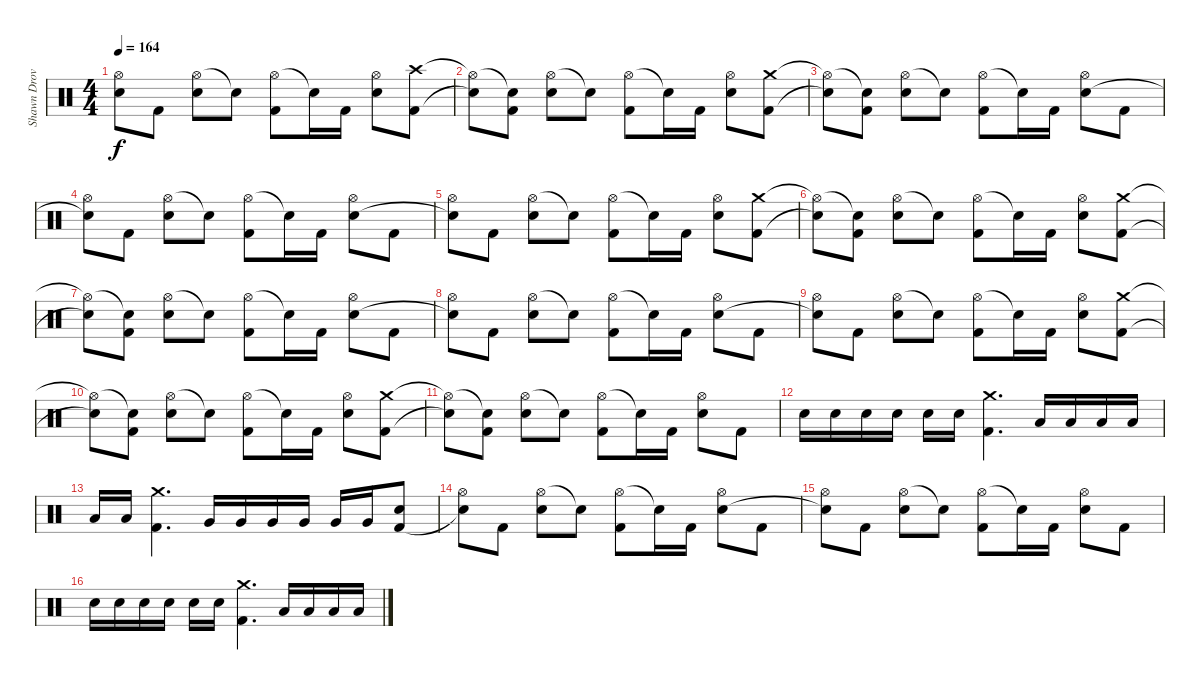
\track ("Shawn Drover" "Shawn Drov") {instrument percussion}
\staff {score}
\articulation defaults
\ts (4 4)
\tempo 164
\clef neutral
\ks c
("Hi-Hat (open)" "Snare (hit)"{t}).8{dy f} "Kick (hit) 2".8 ("Hi-Hat (open)" "Snare (hit) 2").8 "Snare (hit)"{t}.8 ("Hi-Hat (open)" "Kick (hit) 2").8 "Snare (hit)"{t}.16 "Kick (hit) 2".16 ("Hi-Hat (open)" "Snare (hit) 2").8 ("Crash high (hit)" "Kick (hit) 2").8 |
("Hi-Hat (open)"{t} "Snare (hit)"{t}).8 ("Snare (hit)"{t} "Kick (hit) 2").8 ("Hi-Hat (open)" "Snare (hit) 2").8 "Snare (hit)"{t}.8 ("Hi-Hat (open)" "Kick (hit) 2").8 "Snare (hit)"{t}.16 "Kick (hit) 2".16 ("Hi-Hat (open)" "Snare (hit) 2").8 ("Crash medium (hit)" "Kick (hit) 2").8 |
("Hi-Hat (open)"{t} "Snare (hit)"{t}).8 ("Snare (hit)"{t} "Kick (hit) 2").8 ("Hi-Hat (open)" "Snare (hit) 2").8 "Snare (hit)"{t}.8 ("Hi-Hat (open)" "Kick (hit) 2").8 "Snare (hit)"{t}.16 "Kick (hit) 2".16 ("Hi-Hat (open)" "Snare (hit) 2").8 "Kick (hit) 2".8 |
("Hi-Hat (open)" "Snare (hit)"{t}).8 "Kick (hit) 2".8 ("Hi-Hat (open)" "Snare (hit) 2").8 "Snare (hit)"{t}.8 ("Hi-Hat (open)" "Kick (hit) 2").8 "Snare (hit)"{t}.16 "Kick (hit) 2".16 ("Hi-Hat (open)" "Snare (hit) 2").8 "Kick (hit) 2".8 |
("Hi-Hat (open)" "Snare (hit)"{t}).8 "Kick (hit) 2".8 ("Hi-Hat (open)" "Snare (hit) 2").8 "Snare (hit)"{t}.8 ("Hi-Hat (open)" "Kick (hit) 2").8 "Snare (hit)"{t}.16 "Kick (hit) 2".16 ("Hi-Hat (open)" "Snare (hit) 2").8 ("Crash medium (hit)" "Kick (hit) 2").8 |
("Hi-Hat (open)"{t} "Snare (hit)"{t}).8 ("Snare (hit)"{t} "Kick (hit) 2").8 ("Hi-Hat (open)" "Snare (hit) 2").8 "Snare (hit)"{t}.8 ("Hi-Hat (open)" "Kick (hit) 2").8 "Snare (hit)"{t}.16 "Kick (hit) 2".16 ("Hi-Hat (open)" "Snare (hit) 2").8 ("Crash medium (hit)" "Kick (hit) 2").8 |
("Hi-Hat (open)"{t} "Snare (hit)"{t}).8 ("Snare (hit)"{t} "Kick (hit) 2").8 ("Hi-Hat (open)" "Snare (hit) 2").8 "Snare (hit)"{t}.8 ("Hi-Hat (open)" "Kick (hit) 2").8 "Snare (hit)"{t}.16 "Kick (hit) 2".16 ("Hi-Hat (open)" "Snare (hit) 2").8 "Kick (hit) 2".8 |
("Hi-Hat (open)" "Snare (hit)"{t}).8 "Kick (hit) 2".8 ("Hi-Hat (open)" "Snare (hit) 2").8 "Snare (hit)"{t}.8 ("Hi-Hat (open)" "Kick (hit) 2").8 "Snare (hit)"{t}.16 "Kick (hit) 2".16 ("Hi-Hat (open)" "Snare (hit) 2").8 "Kick (hit) 2".8 |
("Hi-Hat (open)" "Snare (hit)"{t}).8 "Kick (hit) 2".8 ("Hi-Hat (open)" "Snare (hit) 2").8 "Snare (hit)"{t}.8 ("Hi-Hat (open)" "Kick (hit) 2").8 "Snare (hit)"{t}.16 "Kick (hit) 2".16 ("Hi-Hat (open)" "Snare (hit) 2").8 ("Crash medium (hit)" "Kick (hit) 2").8 |
("Hi-Hat (open)"{t} "Snare (hit)"{t}).8 ("Snare (hit)"{t} "Kick (hit) 2").8 ("Hi-Hat (open)" "Snare (hit) 2").8 "Snare (hit)"{t}.8 ("Hi-Hat (open)" "Kick (hit) 2").8 "Snare (hit)"{t}.16 "Kick (hit) 2".16 ("Hi-Hat (open)" "Snare (hit) 2").8 ("Crash medium (hit)" "Kick (hit) 2").8 |
("Hi-Hat (open)"{t} "Snare (hit)"{t}).8 ("Snare (hit)"{t} "Kick (hit) 2").8 ("Hi-Hat (open)" "Snare (hit) 2").8 "Snare (hit)"{t}.8 ("Hi-Hat (open)" "Kick (hit) 2").8 "Snare (hit)"{t}.16 "Kick (hit) 2".16 ("Hi-Hat (open)" "Snare (hit) 2").8 "Kick (hit) 2".8 |
"Snare (hit) 2".16 "Snare (hit) 2".16 "Snare (hit) 2".16 "Snare (hit) 2".16 "Snare (hit) 2".16 "Snare (hit) 2".16 ("Crash medium (hit)" "Kick (hit) 2").4{d} "Low Tom (hit)".16 "Low Tom (hit)".16 "Low Tom (hit)".16 "Low Tom (hit)".16 |
"Low Tom (hit)".16 "Low Tom (hit)".16 ("Crash medium (hit)" "Kick (hit) 2").4{d} "Very Low Tom (hit)".16 "Very Low Tom (hit)".16 "Very Low Tom (hit)".16 "Very Low Tom (hit)".16 "Very Low Tom (hit)".16 "Very Low Tom (hit)".16 ("Snare (hit)" "Kick (hit) 2").8 |
("Hi-Hat (open)" "Snare (hit)"{t}).8 "Kick (hit) 2".8 ("Hi-Hat (open)" "Snare (hit) 2").8 "Snare (hit)"{t}.8 ("Hi-Hat (open)" "Kick (hit) 2").8 "Snare (hit)"{t}.16 "Kick (hit) 2".16 ("Hi-Hat (open)" "Snare (hit) 2").8 "Kick (hit) 2".8 |
("Hi-Hat (open)" "Snare (hit)"{t}).8 "Kick (hit) 2".8 ("Hi-Hat (open)" "Snare (hit) 2").8 "Snare (hit)"{t}.8 ("Hi-Hat (open)" "Kick (hit) 2").8 "Snare (hit)"{t}.16 "Kick (hit) 2".16 ("Hi-Hat (open)" "Snare (hit) 2").8 "Kick (hit) 2".8 |
"Snare (hit) 2".16 "Snare (hit) 2".16 "Snare (hit) 2".16 "Snare (hit) 2".16 "Snare (hit) 2".16 "Snare (hit) 2".16 ("Crash medium (hit)" "Kick (hit) 2").4{d} "Low Tom (hit)".16 "Low Tom (hit)".16 "Low Tom (hit)".16 "Low Tom (hit)".16
